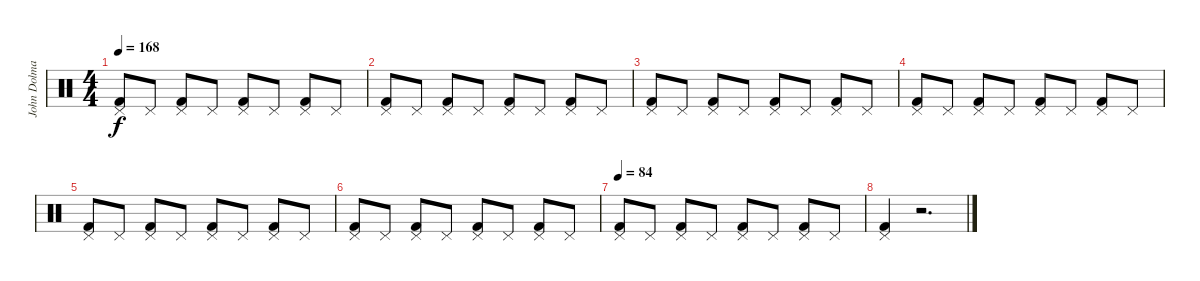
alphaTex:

\track ("John Dolmayan" "John Dolma") {instrument percussion}
\staff {score}
\articulation defaults
\ts (4 4)
\tempo 168
\clef neutral
\ks c
("Pedal Hi-Hat (hit)" "Kick (hit) 2").8{dy f} "Pedal Hi-Hat (hit)".8 ("Pedal Hi-Hat (hit)" "Kick (hit) 2").8 "Pedal Hi-Hat (hit)".8 ("Pedal Hi-Hat (hit)" "Kick (hit) 2").8 "Pedal Hi-Hat (hit)".8 ("Pedal Hi-Hat (hit)" "Kick (hit) 2").8 "Pedal Hi-Hat (hit)".8 |
("Pedal Hi-Hat (hit)" "Kick (hit) 2").8 "Pedal Hi-Hat (hit)".8 ("Pedal Hi-Hat (hit)" "Kick (hit) 2").8 "Pedal Hi-Hat (hit)".8 ("Pedal Hi-Hat (hit)" "Kick (hit) 2").8 "Pedal Hi-Hat (hit)".8 ("Pedal Hi-Hat (hit)" "Kick (hit) 2").8 "Pedal Hi-Hat (hit)".8 |
("Pedal Hi-Hat (hit)" "Kick (hit) 2").8 "Pedal Hi-Hat (hit)".8 ("Pedal Hi-Hat (hit)" "Kick (hit) 2").8 "Pedal Hi-Hat (hit)".8 ("Pedal Hi-Hat (hit)" "Kick (hit) 2").8 "Pedal Hi-Hat (hit)".8 ("Pedal Hi-Hat (hit)" "Kick (hit) 2").8 "Pedal Hi-Hat (hit)".8 |
("Pedal Hi-Hat (hit)" "Kick (hit) 2").8 "Pedal Hi-Hat (hit)".8 ("Pedal Hi-Hat (hit)" "Kick (hit) 2").8 "Pedal Hi-Hat (hit)".8 ("Pedal Hi-Hat (hit)" "Kick (hit) 2").8 "Pedal Hi-Hat (hit)".8 ("Pedal Hi-Hat (hit)" "Kick (hit) 2").8 "Pedal Hi-Hat (hit)".8 |
("Pedal Hi-Hat (hit)" "Kick (hit) 2").8 "Pedal Hi-Hat (hit)".8 ("Pedal Hi-Hat (hit)" "Kick (hit) 2").8 "Pedal Hi-Hat (hit)".8 ("Pedal Hi-Hat (hit)" "Kick (hit) 2").8 "Pedal Hi-Hat (hit)".8 ("Pedal Hi-Hat (hit)" "Kick (hit) 2").8 "Pedal Hi-Hat (hit)".8 |
("Pedal Hi-Hat (hit)" "Kick (hit) 2").8 "Pedal Hi-Hat (hit)".8 ("Pedal Hi-Hat (hit)" "Kick (hit) 2").8 "Pedal Hi-Hat (hit)".8 ("Pedal Hi-Hat (hit)" "Kick (hit) 2").8 "Pedal Hi-Hat (hit)".8 ("Pedal Hi-Hat (hit)" "Kick (hit) 2").8 "Pedal Hi-Hat (hit)".8 |
\tempo 84
("Pedal Hi-Hat (hit)" "Kick (hit) 2").8 "Pedal Hi-Hat (hit)".8 ("Pedal Hi-Hat (hit)" "Kick (hit) 2").8 "Pedal Hi-Hat (hit)".8 ("Pedal Hi-Hat (hit)" "Kick (hit) 2").8 "Pedal Hi-Hat (hit)".8 ("Pedal Hi-Hat (hit)" "Kick (hit) 2").8 "Pedal Hi-Hat (hit)".8 |
("Pedal Hi-Hat (hit)" "Kick (hit) 2").4 r.2{d}
